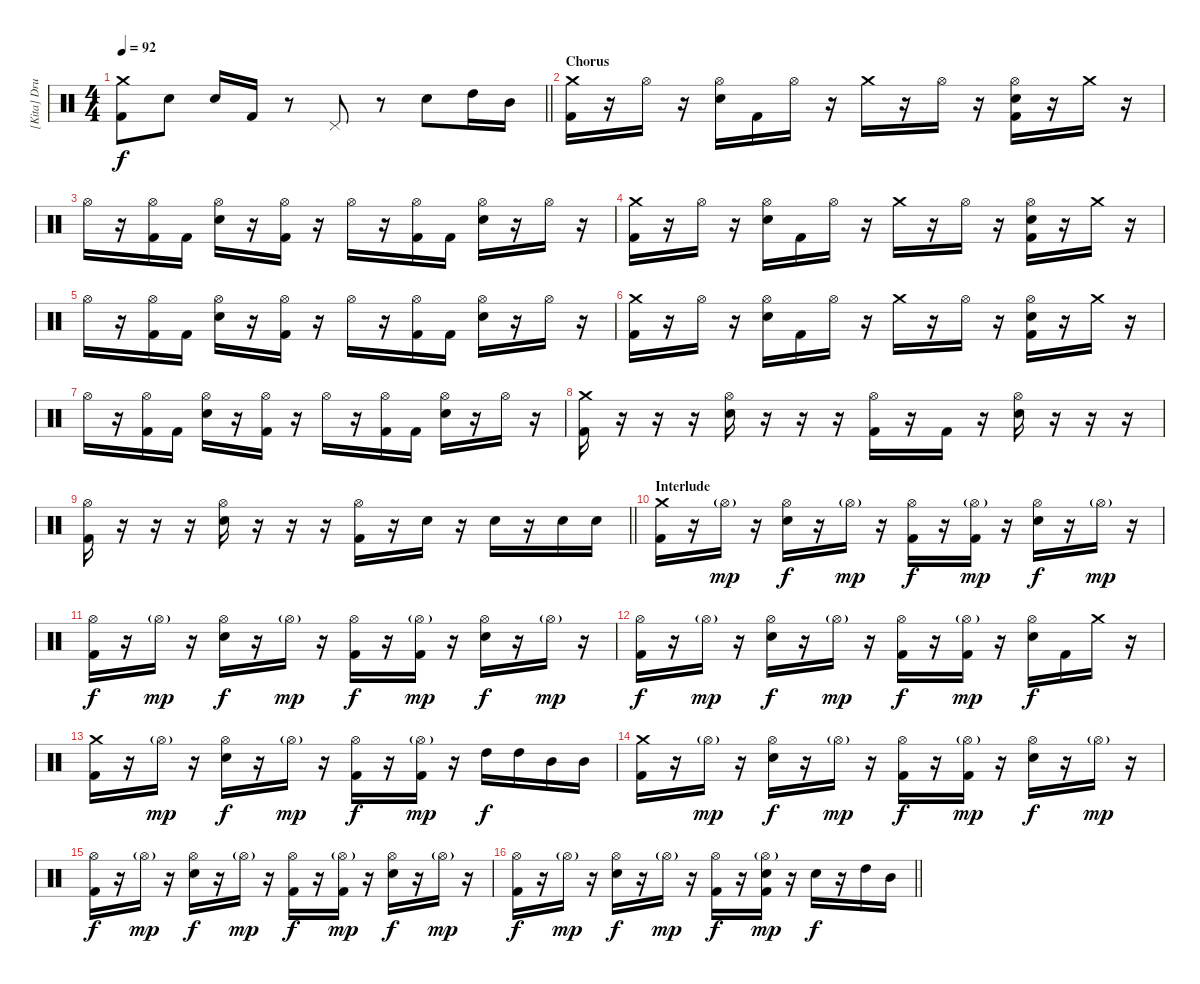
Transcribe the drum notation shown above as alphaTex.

\track ("[Kita] Drum" "[Kita] Dru") {instrument percussion}
\staff {score}
\articulation defaults
\ts (4 4)
\tempo 92
\clef neutral
\barLineRight lightlight
\ks c
("Kick (hit) 2" "Crash medium (hit)").8{dy f} "Electric Snare (hit)".8 "Electric Snare (hit)".16 "Kick (hit) 2".16 r.8 "Pedal Hi-Hat (hit)".8 r.8 "Electric Snare (hit)".8 "High Tom (hit)".16 "Mid Tom (hit)".16 |
\section ("" "Chorus")
("Kick (hit) 2" "Crash medium (hit)").16 r.16 "Hi-Hat (open)".16 r.16 ("Hi-Hat (open)" "Electric Snare (hit)").16 "Kick (hit) 2".16 "Hi-Hat (open)".16 r.16 "Crash medium (hit)".16 r.16 "Hi-Hat (open)".16 r.16 ("Kick (hit) 2" "Hi-Hat (open)" "Electric Snare (hit)").16 r.16 "Crash medium (hit)".16 r.16 |
"Hi-Hat (open)".16 r.16 ("Kick (hit) 2" "Hi-Hat (open)").16 "Kick (hit) 2".16 ("Hi-Hat (open)" "Electric Snare (hit)").16 r.16 ("Kick (hit) 2" "Hi-Hat (open)").16 r.16 "Hi-Hat (open)".16 r.16 ("Kick (hit) 2" "Hi-Hat (open)").16 "Kick (hit) 2".16 ("Hi-Hat (open)" "Electric Snare (hit)").16 r.16 "Hi-Hat (open)".16 r.16 |
("Kick (hit) 2" "Crash medium (hit)").16 r.16 "Hi-Hat (open)".16 r.16 ("Hi-Hat (open)" "Electric Snare (hit)").16 "Kick (hit) 2".16 "Hi-Hat (open)".16 r.16 "Crash medium (hit)".16 r.16 "Hi-Hat (open)".16 r.16 ("Kick (hit) 2" "Hi-Hat (open)" "Electric Snare (hit)").16 r.16 "Crash medium (hit)".16 r.16 |
"Hi-Hat (open)".16 r.16 ("Kick (hit) 2" "Hi-Hat (open)").16 "Kick (hit) 2".16 ("Hi-Hat (open)" "Electric Snare (hit)").16 r.16 ("Kick (hit) 2" "Hi-Hat (open)").16 r.16 "Hi-Hat (open)".16 r.16 ("Kick (hit) 2" "Hi-Hat (open)").16 "Kick (hit) 2".16 ("Hi-Hat (open)" "Electric Snare (hit)").16 r.16 "Hi-Hat (open)".16 r.16 |
("Kick (hit) 2" "Crash medium (hit)").16 r.16 "Hi-Hat (open)".16 r.16 ("Hi-Hat (open)" "Electric Snare (hit)").16 "Kick (hit) 2".16 "Hi-Hat (open)".16 r.16 "Crash medium (hit)".16 r.16 "Hi-Hat (open)".16 r.16 ("Kick (hit) 2" "Hi-Hat (open)" "Electric Snare (hit)").16 r.16 "Crash medium (hit)".16 r.16 |
"Hi-Hat (open)".16 r.16 ("Kick (hit) 2" "Hi-Hat (open)").16 "Kick (hit) 2".16 ("Hi-Hat (open)" "Electric Snare (hit)").16 r.16 ("Kick (hit) 2" "Hi-Hat (open)").16 r.16 "Hi-Hat (open)".16 r.16 ("Kick (hit) 2" "Hi-Hat (open)").16 "Kick (hit) 2".16 ("Hi-Hat (open)" "Electric Snare (hit)").16 r.16 "Hi-Hat (open)".16 r.16 |
("Kick (hit) 2" "Crash medium (hit)").16 r.16 r.16 r.16 ("Hi-Hat (open)" "Electric Snare (hit)").16 r.16 r.16 r.16 ("Kick (hit) 2" "Hi-Hat (open)").16 r.16 "Kick (hit) 2".16 r.16 ("Hi-Hat (open)" "Electric Snare (hit)").16 r.16 r.16 r.16 |
\barLineRight lightlight
("Kick (hit) 2" "Hi-Hat (open)").16 r.16 r.16 r.16 ("Hi-Hat (open)" "Electric Snare (hit)").16 r.16 r.16 r.16 ("Kick (hit) 2" "Hi-Hat (open)").16 r.16 "Electric Snare (hit)".16 r.16 "Electric Snare (hit)".16 r.16 "Electric Snare (hit)".16 "Electric Snare (hit)".16 |
\section ("" "Interlude")
("Kick (hit) 2" "Crash medium (hit)").16 r.16 "Hi-Hat (open)"{g}.16{dy mp} r.16 ("Hi-Hat (open)" "Electric Snare (hit)").16{dy f} r.16 "Hi-Hat (open)"{g}.16{dy mp} r.16 ("Kick (hit) 2" "Hi-Hat (open)").16{dy f} r.16 ("Kick (hit) 2" "Hi-Hat (open)"{g}).16{dy mp} r.16 ("Hi-Hat (open)" "Electric Snare (hit)").16{dy f} r.16 "Hi-Hat (open)"{g}.16{dy mp} r.16 |
("Kick (hit) 2" "Hi-Hat (open)").16{dy f} r.16 "Hi-Hat (open)"{g}.16{dy mp} r.16 ("Hi-Hat (open)" "Electric Snare (hit)").16{dy f} r.16 "Hi-Hat (open)"{g}.16{dy mp} r.16 ("Kick (hit) 2" "Hi-Hat (open)").16{dy f} r.16 ("Kick (hit) 2" "Hi-Hat (open)"{g}).16{dy mp} r.16 ("Hi-Hat (open)" "Electric Snare (hit)").16{dy f} r.16 "Hi-Hat (open)"{g}.16{dy mp} r.16 |
("Kick (hit) 2" "Hi-Hat (open)").16{dy f} r.16 "Hi-Hat (open)"{g}.16{dy mp} r.16 ("Hi-Hat (open)" "Electric Snare (hit)").16{dy f} r.16 "Hi-Hat (open)"{g}.16{dy mp} r.16 ("Kick (hit) 2" "Hi-Hat (open)").16{dy f} r.16 ("Kick (hit) 2" "Hi-Hat (open)"{g}).16{dy mp} r.16 ("Hi-Hat (open)" "Electric Snare (hit)").16{dy f} "Kick (hit) 2".16 "Crash medium (hit)".16 r.16 |
("Kick (hit) 2" "Crash medium (hit)").16 r.16 "Hi-Hat (open)"{g}.16{dy mp} r.16 ("Hi-Hat (open)" "Electric Snare (hit)").16{dy f} r.16 "Hi-Hat (open)"{g}.16{dy mp} r.16 ("Kick (hit) 2" "Hi-Hat (open)").16{dy f} r.16 ("Kick (hit) 2" "Hi-Hat (open)"{g}).16{dy mp} r.16 "High Tom (hit)".16{dy f} "High Tom (hit)".16 "Mid Tom (hit)".16 "Mid Tom (hit)".16 |
("Kick (hit) 2" "Crash medium (hit)").16 r.16 "Hi-Hat (open)"{g}.16{dy mp} r.16 ("Hi-Hat (open)" "Electric Snare (hit)").16{dy f} r.16 "Hi-Hat (open)"{g}.16{dy mp} r.16 ("Kick (hit) 2" "Hi-Hat (open)").16{dy f} r.16 ("Kick (hit) 2" "Hi-Hat (open)"{g}).16{dy mp} r.16 ("Hi-Hat (open)" "Electric Snare (hit)").16{dy f} r.16 "Hi-Hat (open)"{g}.16{dy mp} r.16 |
("Kick (hit) 2" "Hi-Hat (open)").16{dy f} r.16 "Hi-Hat (open)"{g}.16{dy mp} r.16 ("Hi-Hat (open)" "Electric Snare (hit)").16{dy f} r.16 "Hi-Hat (open)"{g}.16{dy mp} r.16 ("Kick (hit) 2" "Hi-Hat (open)").16{dy f} r.16 ("Kick (hit) 2" "Hi-Hat (open)"{g}).16{dy mp} r.16 ("Hi-Hat (open)" "Electric Snare (hit)").16{dy f} r.16 "Hi-Hat (open)"{g}.16{dy mp} r.16 |
\barLineRight lightlight
("Kick (hit) 2" "Hi-Hat (open)").16{dy f} r.16 "Hi-Hat (open)"{g}.16{dy mp} r.16 ("Hi-Hat (open)" "Electric Snare (hit)").16{dy f} r.16 "Hi-Hat (open)"{g}.16{dy mp} r.16 ("Kick (hit) 2" "Hi-Hat (open)").16{dy f} r.16 ("Kick (hit) 2" "Hi-Hat (open)"{g} "Electric Snare (hit)").16{dy mp} r.16 "Electric Snare (hit)".16{dy f} r.16 "High Tom (hit)".16 "Mid Tom (hit)".16
